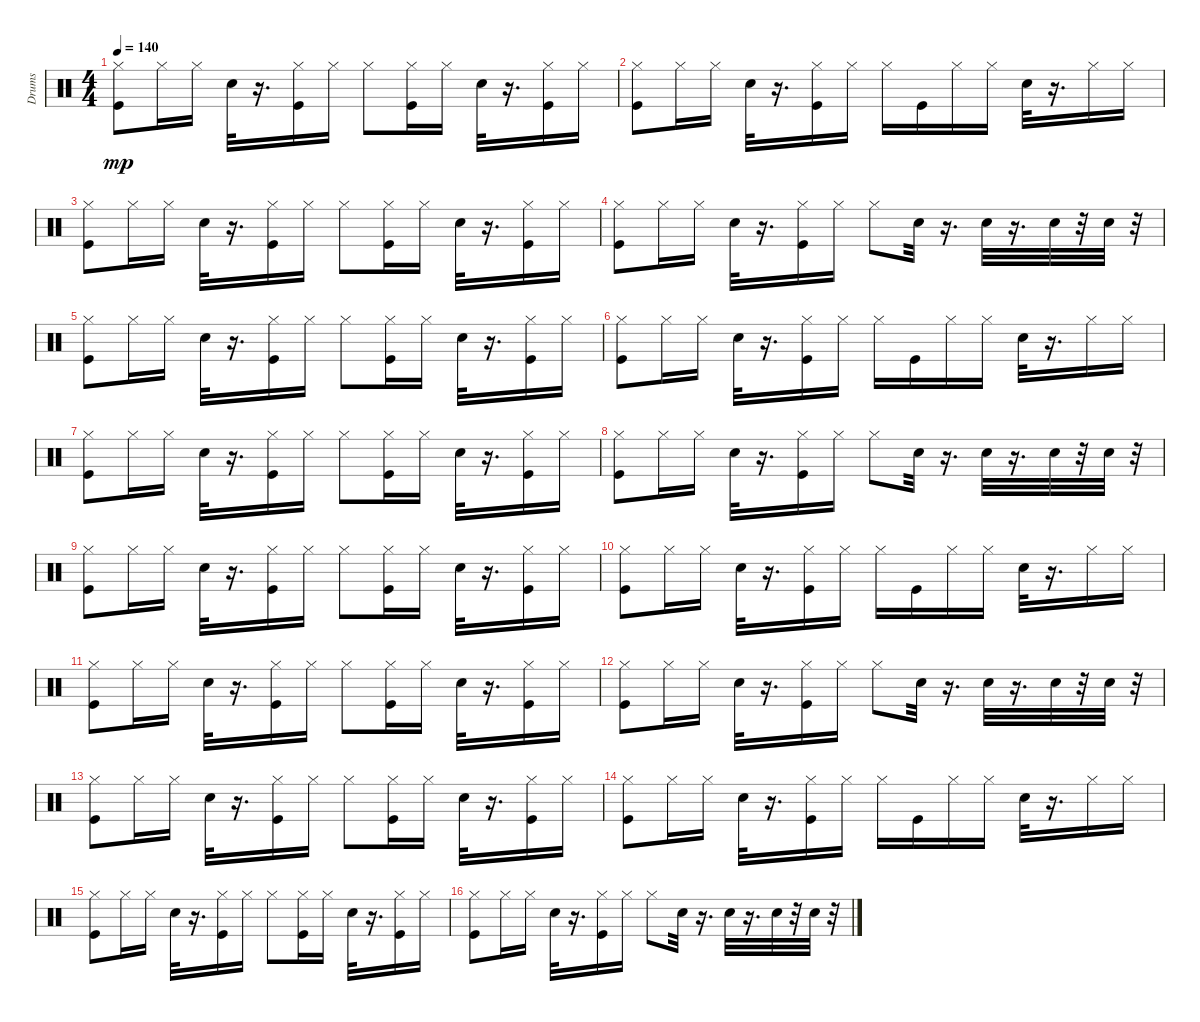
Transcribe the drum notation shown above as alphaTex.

\track ("Drums" "Drums") {instrument percussion}
\staff {score}
\articulation defaults
\ts (4 4)
\tempo 140
\clef neutral
\ks c
("Kick (hit)" "Hi-Hat (closed)").8{dy mp volume 12} "Hi-Hat (closed)".16 "Hi-Hat (closed)".16 "Electric Snare (hit)".32 r.16{d} ("Kick (hit)" "Hi-Hat (closed)").16 "Hi-Hat (closed)".16 "Hi-Hat (closed)".8 ("Kick (hit)" "Hi-Hat (closed)").16 "Hi-Hat (closed)".16 "Electric Snare (hit)".32 r.16{d} ("Kick (hit)" "Hi-Hat (closed)").16 "Hi-Hat (closed)".16 |
("Kick (hit)" "Hi-Hat (closed)").8{volume 12} "Hi-Hat (closed)".16 "Hi-Hat (closed)".16 "Electric Snare (hit)".32 r.16{d} ("Kick (hit)" "Hi-Hat (closed)").16 "Hi-Hat (closed)".16 "Hi-Hat (closed)".16 "Kick (hit)".16 "Hi-Hat (closed)".16 "Hi-Hat (closed)".16 "Electric Snare (hit)".32 r.16{d} "Hi-Hat (closed)".16 "Hi-Hat (closed)".16 |
("Kick (hit)" "Hi-Hat (closed)").8{volume 12} "Hi-Hat (closed)".16 "Hi-Hat (closed)".16 "Electric Snare (hit)".32 r.16{d} ("Kick (hit)" "Hi-Hat (closed)").16 "Hi-Hat (closed)".16 "Hi-Hat (closed)".8 ("Kick (hit)" "Hi-Hat (closed)").16 "Hi-Hat (closed)".16 "Electric Snare (hit)".32 r.16{d} ("Kick (hit)" "Hi-Hat (closed)").16 "Hi-Hat (closed)".16 |
("Kick (hit)" "Hi-Hat (closed)").8{volume 12} "Hi-Hat (closed)".16 "Hi-Hat (closed)".16 "Electric Snare (hit)".32 r.16{d} ("Kick (hit)" "Hi-Hat (closed)").16 "Hi-Hat (closed)".16 "Hi-Hat (closed)".8 "Electric Snare (hit)".32 r.16{d} "Electric Snare (hit)".32 r.16{d} "Electric Snare (hit)".32 r.32 "Electric Snare (hit)".32 r.32 |
("Kick (hit)" "Hi-Hat (closed)").8 "Hi-Hat (closed)".16 "Hi-Hat (closed)".16 "Electric Snare (hit)".32 r.16{d} ("Kick (hit)" "Hi-Hat (closed)").16 "Hi-Hat (closed)".16 "Hi-Hat (closed)".8 ("Kick (hit)" "Hi-Hat (closed)").16 "Hi-Hat (closed)".16 "Electric Snare (hit)".32 r.16{d} ("Kick (hit)" "Hi-Hat (closed)").16 "Hi-Hat (closed)".16 |
("Kick (hit)" "Hi-Hat (closed)").8{volume 12} "Hi-Hat (closed)".16 "Hi-Hat (closed)".16 "Electric Snare (hit)".32 r.16{d} ("Kick (hit)" "Hi-Hat (closed)").16 "Hi-Hat (closed)".16 "Hi-Hat (closed)".16 "Kick (hit)".16 "Hi-Hat (closed)".16 "Hi-Hat (closed)".16 "Electric Snare (hit)".32 r.16{d} "Hi-Hat (closed)".16 "Hi-Hat (closed)".16 |
("Kick (hit)" "Hi-Hat (closed)").8{volume 12} "Hi-Hat (closed)".16 "Hi-Hat (closed)".16 "Electric Snare (hit)".32 r.16{d} ("Kick (hit)" "Hi-Hat (closed)").16 "Hi-Hat (closed)".16 "Hi-Hat (closed)".8 ("Kick (hit)" "Hi-Hat (closed)").16 "Hi-Hat (closed)".16 "Electric Snare (hit)".32 r.16{d} ("Kick (hit)" "Hi-Hat (closed)").16 "Hi-Hat (closed)".16 |
("Kick (hit)" "Hi-Hat (closed)").8{volume 12} "Hi-Hat (closed)".16 "Hi-Hat (closed)".16 "Electric Snare (hit)".32 r.16{d} ("Kick (hit)" "Hi-Hat (closed)").16 "Hi-Hat (closed)".16 "Hi-Hat (closed)".8 "Electric Snare (hit)".32 r.16{d} "Electric Snare (hit)".32 r.16{d} "Electric Snare (hit)".32 r.32 "Electric Snare (hit)".32 r.32 |
("Kick (hit)" "Hi-Hat (closed)").8 "Hi-Hat (closed)".16 "Hi-Hat (closed)".16 "Electric Snare (hit)".32 r.16{d} ("Kick (hit)" "Hi-Hat (closed)").16 "Hi-Hat (closed)".16 "Hi-Hat (closed)".8 ("Kick (hit)" "Hi-Hat (closed)").16 "Hi-Hat (closed)".16 "Electric Snare (hit)".32 r.16{d} ("Kick (hit)" "Hi-Hat (closed)").16 "Hi-Hat (closed)".16 |
("Kick (hit)" "Hi-Hat (closed)").8{volume 12} "Hi-Hat (closed)".16 "Hi-Hat (closed)".16 "Electric Snare (hit)".32 r.16{d} ("Kick (hit)" "Hi-Hat (closed)").16 "Hi-Hat (closed)".16 "Hi-Hat (closed)".16 "Kick (hit)".16 "Hi-Hat (closed)".16 "Hi-Hat (closed)".16 "Electric Snare (hit)".32 r.16{d} "Hi-Hat (closed)".16 "Hi-Hat (closed)".16 |
("Kick (hit)" "Hi-Hat (closed)").8{volume 12} "Hi-Hat (closed)".16 "Hi-Hat (closed)".16 "Electric Snare (hit)".32 r.16{d} ("Kick (hit)" "Hi-Hat (closed)").16 "Hi-Hat (closed)".16 "Hi-Hat (closed)".8 ("Kick (hit)" "Hi-Hat (closed)").16 "Hi-Hat (closed)".16 "Electric Snare (hit)".32 r.16{d} ("Kick (hit)" "Hi-Hat (closed)").16 "Hi-Hat (closed)".16 |
("Kick (hit)" "Hi-Hat (closed)").8{volume 12} "Hi-Hat (closed)".16 "Hi-Hat (closed)".16 "Electric Snare (hit)".32 r.16{d} ("Kick (hit)" "Hi-Hat (closed)").16 "Hi-Hat (closed)".16 "Hi-Hat (closed)".8 "Electric Snare (hit)".32 r.16{d} "Electric Snare (hit)".32 r.16{d} "Electric Snare (hit)".32 r.32 "Electric Snare (hit)".32 r.32 |
("Kick (hit)" "Hi-Hat (closed)").8 "Hi-Hat (closed)".16 "Hi-Hat (closed)".16 "Electric Snare (hit)".32 r.16{d} ("Kick (hit)" "Hi-Hat (closed)").16 "Hi-Hat (closed)".16 "Hi-Hat (closed)".8 ("Kick (hit)" "Hi-Hat (closed)").16 "Hi-Hat (closed)".16 "Electric Snare (hit)".32 r.16{d} ("Kick (hit)" "Hi-Hat (closed)").16 "Hi-Hat (closed)".16 |
("Kick (hit)" "Hi-Hat (closed)").8{volume 12} "Hi-Hat (closed)".16 "Hi-Hat (closed)".16 "Electric Snare (hit)".32 r.16{d} ("Kick (hit)" "Hi-Hat (closed)").16 "Hi-Hat (closed)".16 "Hi-Hat (closed)".16 "Kick (hit)".16 "Hi-Hat (closed)".16 "Hi-Hat (closed)".16 "Electric Snare (hit)".32 r.16{d} "Hi-Hat (closed)".16 "Hi-Hat (closed)".16 |
("Kick (hit)" "Hi-Hat (closed)").8{volume 12} "Hi-Hat (closed)".16 "Hi-Hat (closed)".16 "Electric Snare (hit)".32 r.16{d} ("Kick (hit)" "Hi-Hat (closed)").16 "Hi-Hat (closed)".16 "Hi-Hat (closed)".8 ("Kick (hit)" "Hi-Hat (closed)").16 "Hi-Hat (closed)".16 "Electric Snare (hit)".32 r.16{d} ("Kick (hit)" "Hi-Hat (closed)").16 "Hi-Hat (closed)".16 |
("Kick (hit)" "Hi-Hat (closed)").8{volume 12} "Hi-Hat (closed)".16 "Hi-Hat (closed)".16 "Electric Snare (hit)".32 r.16{d} ("Kick (hit)" "Hi-Hat (closed)").16 "Hi-Hat (closed)".16 "Hi-Hat (closed)".8 "Electric Snare (hit)".32 r.16{d} "Electric Snare (hit)".32 r.16{d} "Electric Snare (hit)".32 r.32 "Electric Snare (hit)".32 r.32
